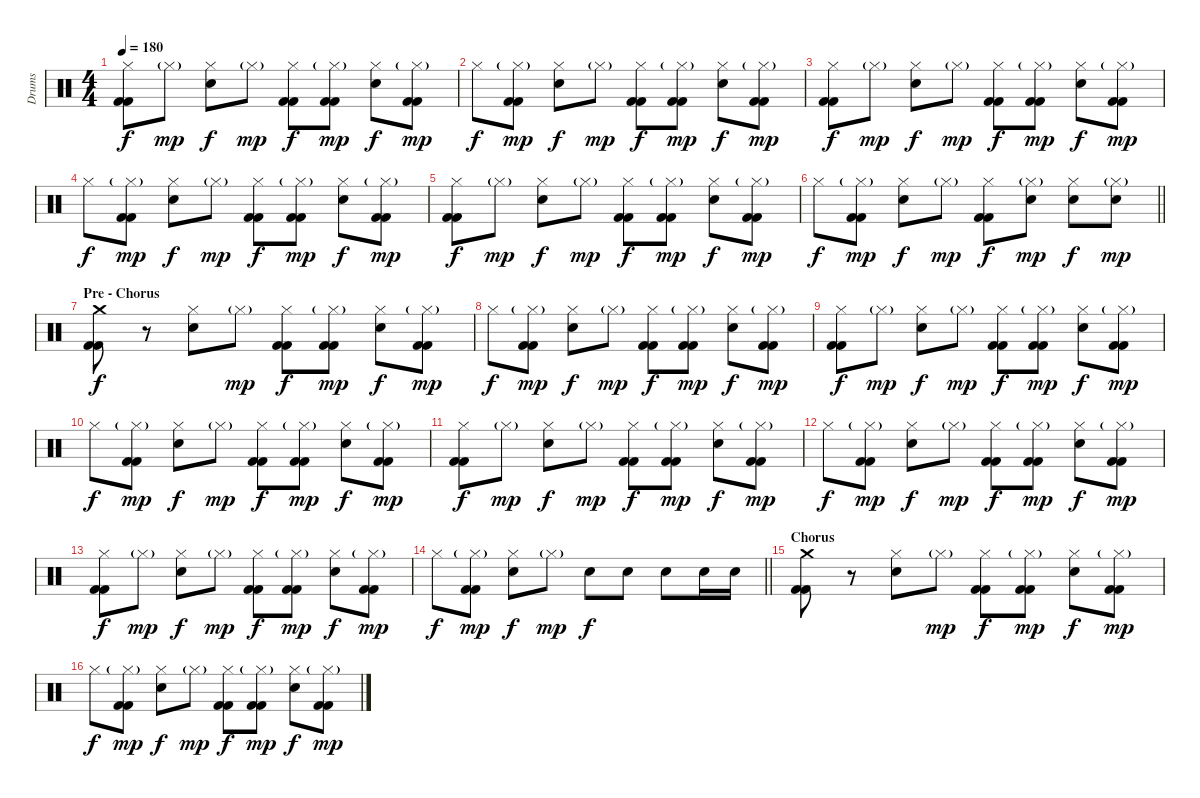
\track ("Drums" "Drums") {instrument percussion}
\staff {score}
\articulation defaults
\ts (4 4)
\tempo 180
\clef neutral
\ks c
("Hi-Hat (closed)" "Kick (hit) 2" "Kick (hit) 2").8{dy f} "Hi-Hat (closed)"{g}.8{dy mp} ("Hi-Hat (closed)" "Snare (hit) 2").8{dy f} "Hi-Hat (closed)"{g}.8{dy mp} ("Hi-Hat (closed)" "Kick (hit) 2" "Kick (hit) 2").8{dy f} ("Hi-Hat (closed)"{g} "Kick (hit) 2" "Kick (hit) 2").8{dy mp} ("Hi-Hat (closed)" "Snare (hit) 2").8{dy f} ("Hi-Hat (closed)"{g} "Kick (hit) 2" "Kick (hit) 2").8{dy mp} |
"Hi-Hat (closed)".8{dy f} ("Hi-Hat (closed)"{g} "Kick (hit) 2" "Kick (hit) 2").8{dy mp} ("Hi-Hat (closed)" "Snare (hit) 2").8{dy f} "Hi-Hat (closed)"{g}.8{dy mp} ("Hi-Hat (closed)" "Kick (hit) 2" "Kick (hit) 2").8{dy f} ("Hi-Hat (closed)"{g} "Kick (hit) 2" "Kick (hit) 2").8{dy mp} ("Hi-Hat (closed)" "Snare (hit) 2").8{dy f} ("Hi-Hat (closed)"{g} "Kick (hit) 2" "Kick (hit) 2").8{dy mp} |
("Hi-Hat (closed)" "Kick (hit) 2" "Kick (hit) 2").8{dy f} "Hi-Hat (closed)"{g}.8{dy mp} ("Hi-Hat (closed)" "Snare (hit) 2").8{dy f} "Hi-Hat (closed)"{g}.8{dy mp} ("Hi-Hat (closed)" "Kick (hit) 2" "Kick (hit) 2").8{dy f} ("Hi-Hat (closed)"{g} "Kick (hit) 2" "Kick (hit) 2").8{dy mp} ("Hi-Hat (closed)" "Snare (hit) 2").8{dy f} ("Hi-Hat (closed)"{g} "Kick (hit) 2" "Kick (hit) 2").8{dy mp} |
"Hi-Hat (closed)".8{dy f} ("Hi-Hat (closed)"{g} "Kick (hit) 2" "Kick (hit) 2").8{dy mp} ("Hi-Hat (closed)" "Snare (hit) 2").8{dy f} "Hi-Hat (closed)"{g}.8{dy mp} ("Hi-Hat (closed)" "Kick (hit) 2" "Kick (hit) 2").8{dy f} ("Hi-Hat (closed)"{g} "Kick (hit) 2" "Kick (hit) 2").8{dy mp} ("Hi-Hat (closed)" "Snare (hit) 2").8{dy f} ("Hi-Hat (closed)"{g} "Kick (hit) 2" "Kick (hit) 2").8{dy mp} |
("Hi-Hat (closed)" "Kick (hit) 2" "Kick (hit) 2").8{dy f} "Hi-Hat (closed)"{g}.8{dy mp} ("Hi-Hat (closed)" "Snare (hit) 2").8{dy f} "Hi-Hat (closed)"{g}.8{dy mp} ("Hi-Hat (closed)" "Kick (hit) 2" "Kick (hit) 2").8{dy f} ("Hi-Hat (closed)"{g} "Kick (hit) 2" "Kick (hit) 2").8{dy mp} ("Hi-Hat (closed)" "Snare (hit) 2").8{dy f} ("Hi-Hat (closed)"{g} "Kick (hit) 2" "Kick (hit) 2").8{dy mp} |
\barLineRight lightlight "Hi-Hat (closed)".8{dy f}
("Hi-Hat (closed)"{g} "Kick (hit) 2" "Kick (hit) 2").8{dy mp} ("Hi-Hat (closed)" "Snare (hit) 2").8{dy f} "Hi-Hat (closed)"{g}.8{dy mp} ("Hi-Hat (closed)" "Kick (hit) 2" "Kick (hit) 2").8{dy f} ("Hi-Hat (closed)"{g} "Snare (hit) 2").8{dy mp} ("Hi-Hat (closed)" "Snare (hit) 2").8{dy f} ("Hi-Hat (closed)"{g} "Snare (hit) 2").8{dy mp} |
\section ("" "Pre - Chorus")
("Crash medium (hit)" "Kick (hit) 2" "Kick (hit) 2").8{dy f} r.8 ("Hi-Hat (closed)" "Snare (hit) 2").8 "Hi-Hat (closed)"{g}.8{dy mp} ("Hi-Hat (closed)" "Kick (hit) 2" "Kick (hit) 2").8{dy f} ("Hi-Hat (closed)"{g} "Kick (hit) 2" "Kick (hit) 2").8{dy mp} ("Hi-Hat (closed)" "Snare (hit) 2").8{dy f} ("Hi-Hat (closed)"{g} "Kick (hit) 2" "Kick (hit) 2").8{dy mp} |
"Hi-Hat (closed)".8{dy f} ("Hi-Hat (closed)"{g} "Kick (hit) 2" "Kick (hit) 2").8{dy mp} ("Hi-Hat (closed)" "Snare (hit) 2").8{dy f} "Hi-Hat (closed)"{g}.8{dy mp} ("Hi-Hat (closed)" "Kick (hit) 2" "Kick (hit) 2").8{dy f} ("Hi-Hat (closed)"{g} "Kick (hit) 2" "Kick (hit) 2").8{dy mp} ("Hi-Hat (closed)" "Snare (hit) 2").8{dy f} ("Hi-Hat (closed)"{g} "Kick (hit) 2" "Kick (hit) 2").8{dy mp} |
("Hi-Hat (closed)" "Kick (hit) 2" "Kick (hit) 2").8{dy f} "Hi-Hat (closed)"{g}.8{dy mp} ("Hi-Hat (closed)" "Snare (hit) 2").8{dy f} "Hi-Hat (closed)"{g}.8{dy mp} ("Hi-Hat (closed)" "Kick (hit) 2" "Kick (hit) 2").8{dy f} ("Hi-Hat (closed)"{g} "Kick (hit) 2" "Kick (hit) 2").8{dy mp} ("Hi-Hat (closed)" "Snare (hit) 2").8{dy f} ("Hi-Hat (closed)"{g} "Kick (hit) 2" "Kick (hit) 2").8{dy mp} |
"Hi-Hat (closed)".8{dy f} ("Hi-Hat (closed)"{g} "Kick (hit) 2" "Kick (hit) 2").8{dy mp} ("Hi-Hat (closed)" "Snare (hit) 2").8{dy f} "Hi-Hat (closed)"{g}.8{dy mp} ("Hi-Hat (closed)" "Kick (hit) 2" "Kick (hit) 2").8{dy f} ("Hi-Hat (closed)"{g} "Kick (hit) 2" "Kick (hit) 2").8{dy mp} ("Hi-Hat (closed)" "Snare (hit) 2").8{dy f} ("Hi-Hat (closed)"{g} "Kick (hit) 2" "Kick (hit) 2").8{dy mp} |
("Hi-Hat (closed)" "Kick (hit) 2" "Kick (hit) 2").8{dy f} "Hi-Hat (closed)"{g}.8{dy mp} ("Hi-Hat (closed)" "Snare (hit) 2").8{dy f} "Hi-Hat (closed)"{g}.8{dy mp} ("Hi-Hat (closed)" "Kick (hit) 2" "Kick (hit) 2").8{dy f} ("Hi-Hat (closed)"{g} "Kick (hit) 2" "Kick (hit) 2").8{dy mp} ("Hi-Hat (closed)" "Snare (hit) 2").8{dy f} ("Hi-Hat (closed)"{g} "Kick (hit) 2" "Kick (hit) 2").8{dy mp} |
"Hi-Hat (closed)".8{dy f} ("Hi-Hat (closed)"{g} "Kick (hit) 2" "Kick (hit) 2").8{dy mp} ("Hi-Hat (closed)" "Snare (hit) 2").8{dy f} "Hi-Hat (closed)"{g}.8{dy mp} ("Hi-Hat (closed)" "Kick (hit) 2" "Kick (hit) 2").8{dy f} ("Hi-Hat (closed)"{g} "Kick (hit) 2" "Kick (hit) 2").8{dy mp} ("Hi-Hat (closed)" "Snare (hit) 2").8{dy f} ("Hi-Hat (closed)"{g} "Kick (hit) 2" "Kick (hit) 2").8{dy mp} |
("Hi-Hat (closed)" "Kick (hit) 2" "Kick (hit) 2").8{dy f} "Hi-Hat (closed)"{g}.8{dy mp} ("Hi-Hat (closed)" "Snare (hit) 2").8{dy f} "Hi-Hat (closed)"{g}.8{dy mp} ("Hi-Hat (closed)" "Kick (hit) 2" "Kick (hit) 2").8{dy f} ("Hi-Hat (closed)"{g} "Kick (hit) 2" "Kick (hit) 2").8{dy mp} ("Hi-Hat (closed)" "Snare (hit) 2").8{dy f} ("Hi-Hat (closed)"{g} "Kick (hit) 2" "Kick (hit) 2").8{dy mp} |
\barLineRight lightlight "Hi-Hat (closed)".8{dy f}
("Hi-Hat (closed)"{g} "Kick (hit) 2" "Kick (hit) 2").8{dy mp} ("Hi-Hat (closed)" "Snare (hit) 2").8{dy f} "Hi-Hat (closed)"{g}.8{dy mp} "Snare (hit) 2".8{dy f} "Snare (hit) 2".8 "Snare (hit) 2".8 "Snare (hit) 2".16 "Snare (hit) 2".16 |
\section ("" "Chorus")
("Crash medium (hit)" "Kick (hit) 2" "Kick (hit) 2").8 r.8 ("Hi-Hat (closed)" "Snare (hit) 2").8 "Hi-Hat (closed)"{g}.8{dy mp} ("Hi-Hat (closed)" "Kick (hit) 2" "Kick (hit) 2").8{dy f} ("Hi-Hat (closed)"{g} "Kick (hit) 2" "Kick (hit) 2").8{dy mp} ("Hi-Hat (closed)" "Snare (hit) 2").8{dy f} ("Hi-Hat (closed)"{g} "Kick (hit) 2" "Kick (hit) 2").8{dy mp} |
"Hi-Hat (closed)".8{dy f} ("Hi-Hat (closed)"{g} "Kick (hit) 2" "Kick (hit) 2").8{dy mp} ("Hi-Hat (closed)" "Snare (hit) 2").8{dy f} "Hi-Hat (closed)"{g}.8{dy mp} ("Hi-Hat (closed)" "Kick (hit) 2" "Kick (hit) 2").8{dy f} ("Hi-Hat (closed)"{g} "Kick (hit) 2" "Kick (hit) 2").8{dy mp} ("Hi-Hat (closed)" "Snare (hit) 2").8{dy f} ("Hi-Hat (closed)"{g} "Kick (hit) 2" "Kick (hit) 2").8{dy mp}
